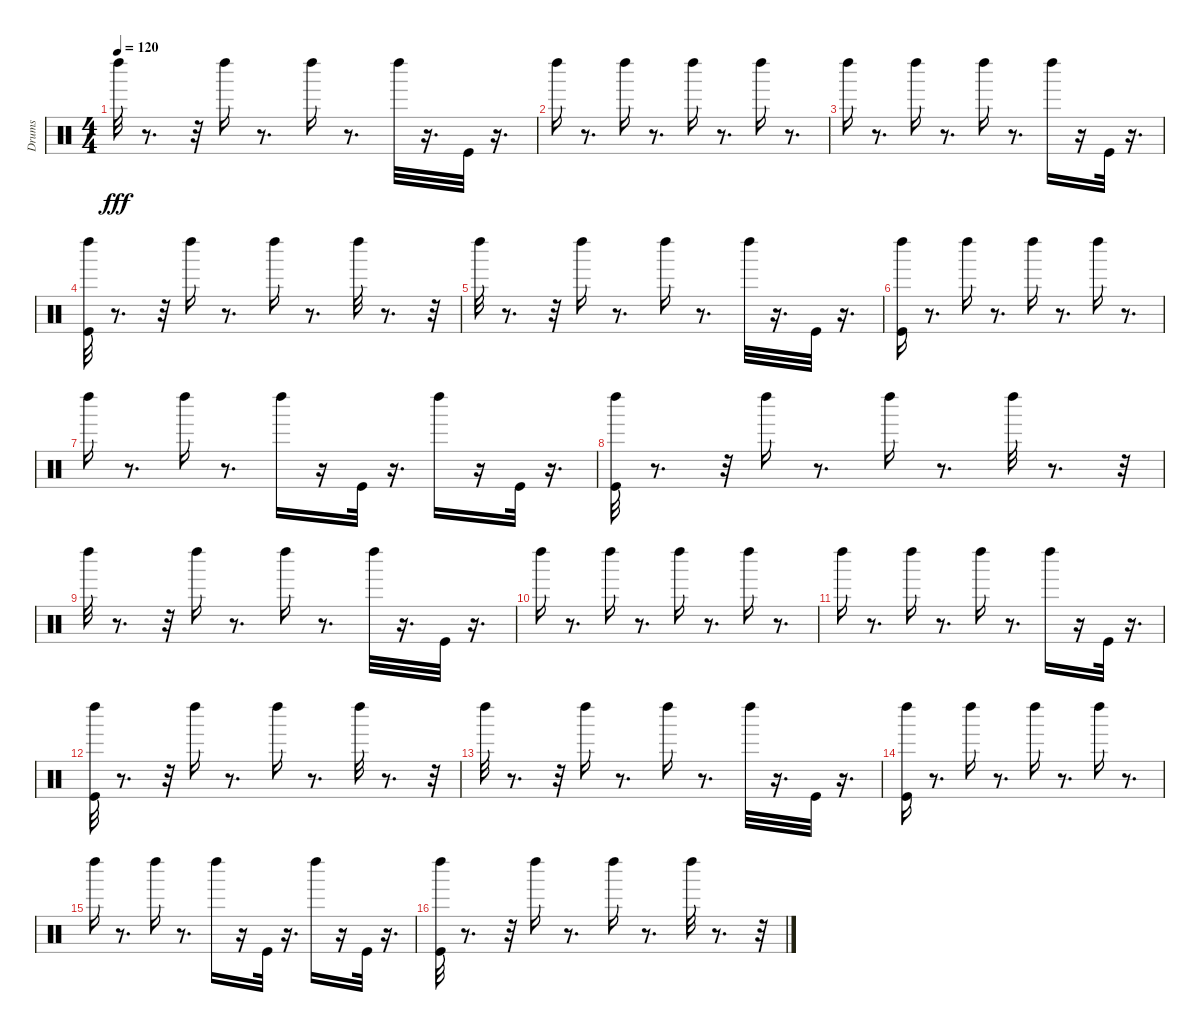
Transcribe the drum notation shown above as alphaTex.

\track ("Drums" "Drums") {instrument percussion}
\staff {score}
\articulation defaults
\ts (4 4)
\tempo 120
\clef neutral
\ks c "Left Maraca (hit)".32{dy fff}
r.8{d} r.32 "Left Maraca (hit)".16 r.8{d} "Left Maraca (hit)".16 r.8{d} "Left Maraca (hit)".32 r.16{d} "Kick (hit)".32 r.16{d} |
"Left Maraca (hit)".16 r.8{d} "Left Maraca (hit)".16 r.8{d} "Left Maraca (hit)".16 r.8{d} "Left Maraca (hit)".16 r.8{d} |
"Left Maraca (hit)".16 r.8{d} "Left Maraca (hit)".16 r.8{d} "Left Maraca (hit)".16 r.8{d} "Left Maraca (hit)".16 r.16 "Kick (hit)".32 r.16{d} |
("Kick (hit)" "Left Maraca (hit)").32 r.8{d} r.32 "Left Maraca (hit)".16 r.8{d} "Left Maraca (hit)".16 r.8{d} "Left Maraca (hit)".32 r.8{d} r.32 |
"Left Maraca (hit)".32 r.8{d} r.32 "Left Maraca (hit)".16 r.8{d} "Left Maraca (hit)".16 r.8{d} "Left Maraca (hit)".32 r.16{d} "Kick (hit)".32 r.16{d} |
("Kick (hit)" "Left Maraca (hit)").16 r.8{d} "Left Maraca (hit)".16 r.8{d} "Left Maraca (hit)".16 r.8{d} "Left Maraca (hit)".16 r.8{d} |
"Left Maraca (hit)".16 r.8{d} "Left Maraca (hit)".16 r.8{d} "Left Maraca (hit)".16 r.16 "Kick (hit)".32 r.16{d} "Left Maraca (hit)".16 r.16 "Kick (hit)".32 r.16{d} |
("Kick (hit)" "Left Maraca (hit)").32 r.8{d} r.32 "Left Maraca (hit)".16 r.8{d} "Left Maraca (hit)".16 r.8{d} "Left Maraca (hit)".32 r.8{d} r.32 |
"Left Maraca (hit)".32 r.8{d} r.32 "Left Maraca (hit)".16 r.8{d} "Left Maraca (hit)".16 r.8{d} "Left Maraca (hit)".32 r.16{d} "Kick (hit)".32 r.16{d} |
"Left Maraca (hit)".16 r.8{d} "Left Maraca (hit)".16 r.8{d} "Left Maraca (hit)".16 r.8{d} "Left Maraca (hit)".16 r.8{d} |
"Left Maraca (hit)".16 r.8{d} "Left Maraca (hit)".16 r.8{d} "Left Maraca (hit)".16 r.8{d} "Left Maraca (hit)".16 r.16 "Kick (hit)".32 r.16{d} |
("Kick (hit)" "Left Maraca (hit)").32 r.8{d} r.32 "Left Maraca (hit)".16 r.8{d} "Left Maraca (hit)".16 r.8{d} "Left Maraca (hit)".32 r.8{d} r.32 |
"Left Maraca (hit)".32 r.8{d} r.32 "Left Maraca (hit)".16 r.8{d} "Left Maraca (hit)".16 r.8{d} "Left Maraca (hit)".32 r.16{d} "Kick (hit)".32 r.16{d} |
("Kick (hit)" "Left Maraca (hit)").16 r.8{d} "Left Maraca (hit)".16 r.8{d} "Left Maraca (hit)".16 r.8{d} "Left Maraca (hit)".16 r.8{d} |
"Left Maraca (hit)".16 r.8{d} "Left Maraca (hit)".16 r.8{d} "Left Maraca (hit)".16 r.16 "Kick (hit)".32 r.16{d} "Left Maraca (hit)".16 r.16 "Kick (hit)".32 r.16{d} |
("Kick (hit)" "Left Maraca (hit)").32 r.8{d} r.32 "Left Maraca (hit)".16 r.8{d} "Left Maraca (hit)".16 r.8{d} "Left Maraca (hit)".32 r.8{d} r.32
